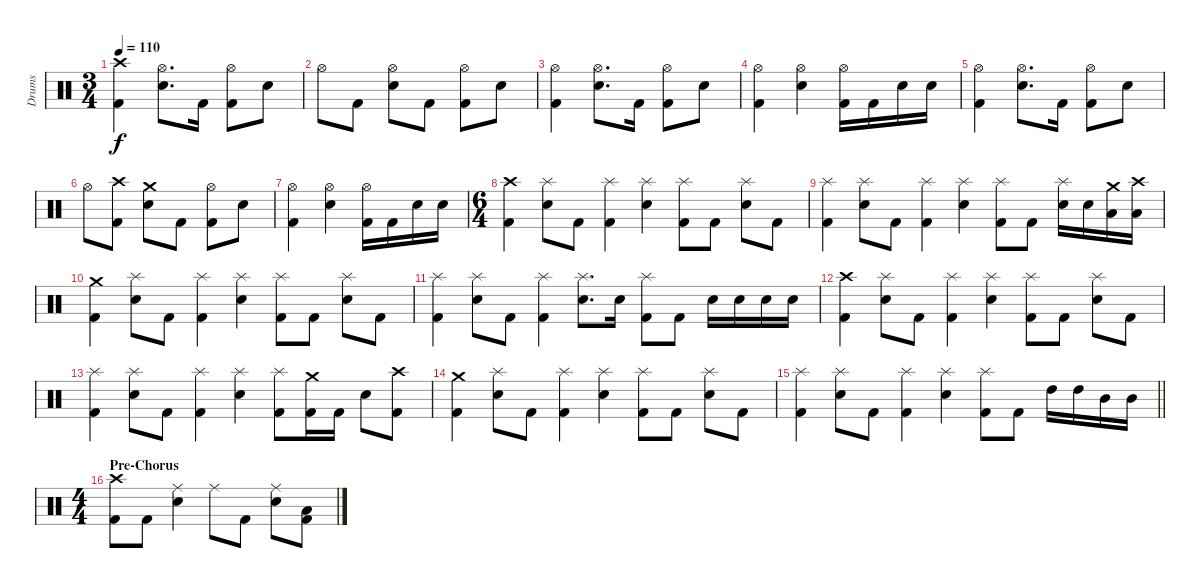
\track ("Drums" "Drums") {instrument percussion}
\staff {score}
\articulation defaults
\ts (3 4)
\tempo 110
\clef neutral
\ks c
("Crash high (hit)" "Kick (hit) 2").4{dy f} ("Hi-Hat (open)" "Snare (hit) 2").8{d} "Kick (hit) 2".16 ("Hi-Hat (open)" "Kick (hit) 2").8 "Snare (hit) 2".8 |
"Hi-Hat (open)".8 "Kick (hit) 2".8 ("Hi-Hat (open)" "Snare (hit) 2").8 "Kick (hit) 2".8 ("Hi-Hat (open)" "Kick (hit) 2").8 "Snare (hit) 2".8 |
("Hi-Hat (open)" "Kick (hit) 2").4 ("Hi-Hat (open)" "Snare (hit) 2").8{d} "Kick (hit) 2".16 ("Hi-Hat (open)" "Kick (hit) 2").8 "Snare (hit) 2".8 |
("Hi-Hat (open)" "Kick (hit) 2").4 ("Hi-Hat (open)" "Snare (hit) 2").4 ("Hi-Hat (open)" "Kick (hit) 2").16 "Kick (hit) 2".16 "Snare (hit) 2".16 "Snare (hit) 2".16 |
("Hi-Hat (open)" "Kick (hit) 2").4 ("Hi-Hat (open)" "Snare (hit) 2").8{d} "Kick (hit) 2".16 ("Hi-Hat (open)" "Kick (hit) 2").8 "Snare (hit) 2".8 |
"Hi-Hat (open)".8 ("Crash high (hit)" "Kick (hit) 2").8 ("Crash medium (hit)" "Snare (hit) 2").8 "Kick (hit) 2".8 ("Hi-Hat (open)" "Kick (hit) 2").8 "Snare (hit) 2".8 |
("Hi-Hat (open)" "Kick (hit) 2").4 ("Hi-Hat (open)" "Snare (hit) 2").4 ("Hi-Hat (open)" "Kick (hit) 2").16 "Kick (hit) 2".16 "Snare (hit) 2".16 "Snare (hit) 2".16 |
\ts (6 4)
("Crash high (hit)" "Kick (hit) 2").4 ("Splash (hit)" "Snare (hit) 2").8 "Kick (hit) 2".8 ("Splash (hit)" "Kick (hit) 2").4 ("Splash (hit)" "Snare (hit) 2").4 ("Splash (hit)" "Kick (hit) 2").8 "Kick (hit) 2".8 ("Splash (hit)" "Snare (hit) 2").8 "Kick (hit) 2".8 |
("Splash (hit)" "Kick (hit) 2").4 ("Splash (hit)" "Snare (hit) 2").8 "Kick (hit) 2".8 ("Splash (hit)" "Kick (hit) 2").4 ("Splash (hit)" "Snare (hit) 2").4 ("Splash (hit)" "Kick (hit) 2").8 "Kick (hit) 2".8 ("Splash (hit)" "Snare (hit) 2").16 "Snare (hit) 2".16 ("Crash medium (hit)" "Low Tom (hit)").16 ("Crash high (hit)" "Low Tom (hit)").16 |
("Crash medium (hit)" "Kick (hit) 2").4 ("Splash (hit)" "Snare (hit) 2").8 "Kick (hit) 2".8 ("Splash (hit)" "Kick (hit) 2").4 ("Splash (hit)" "Snare (hit) 2").4 ("Splash (hit)" "Kick (hit) 2").8 "Kick (hit) 2".8 ("Splash (hit)" "Snare (hit) 2").8 "Kick (hit) 2".8 |
("Splash (hit)" "Kick (hit) 2").4 ("Splash (hit)" "Snare (hit) 2").8 "Kick (hit) 2".8 ("Splash (hit)" "Kick (hit) 2").4 ("Splash (hit)" "Snare (hit) 2").8{d} "Snare (hit) 2".16 ("Splash (hit)" "Kick (hit) 2").8 "Kick (hit) 2".8 "Snare (hit) 2".16 "Snare (hit) 2".16 "Snare (hit) 2".16 "Snare (hit) 2".16 |
("Crash high (hit)" "Kick (hit) 2").4 ("Splash (hit)" "Snare (hit) 2").8 "Kick (hit) 2".8 ("Splash (hit)" "Kick (hit) 2").4 ("Splash (hit)" "Snare (hit) 2").4 ("Splash (hit)" "Kick (hit) 2").8 "Kick (hit) 2".8 ("Splash (hit)" "Snare (hit) 2").8 "Kick (hit) 2".8 |
("Splash (hit)" "Kick (hit) 2").4 ("Splash (hit)" "Snare (hit) 2").8 "Kick (hit) 2".8 ("Splash (hit)" "Kick (hit) 2").4 ("Splash (hit)" "Snare (hit) 2").4 ("Splash (hit)" "Kick (hit) 2").8 ("Crash medium (hit)" "Kick (hit) 2").16 "Kick (hit) 2".16 "Snare (hit) 2".8 ("Crash high (hit)" "Kick (hit) 2").8 |
("Crash medium (hit)" "Kick (hit) 2").4 ("Splash (hit)" "Snare (hit) 2").8 "Kick (hit) 2".8 ("Splash (hit)" "Kick (hit) 2").4 ("Splash (hit)" "Snare (hit) 2").4 ("Splash (hit)" "Kick (hit) 2").8 "Kick (hit) 2".8 ("Splash (hit)" "Snare (hit) 2").8 "Kick (hit) 2".8 |
\barLineRight lightlight
("Splash (hit)" "Kick (hit) 2").4 ("Splash (hit)" "Snare (hit) 2").8 "Kick (hit) 2".8 ("Splash (hit)" "Kick (hit) 2").4 ("Splash (hit)" "Snare (hit) 2").4 ("Splash (hit)" "Kick (hit) 2").8 "Kick (hit) 2".8 "High Tom (hit)".16 "High Tom (hit)".16 "Mid Tom (hit)".16 "Mid Tom (hit)".16 |
\ts (4 4)
\section ("" "Pre-Chorus")
("Crash high (hit)" "Kick (hit) 2").8 "Kick (hit) 2".8 ("Ride (middle)" "Snare (hit) 2").4 "Ride (middle)".8 "Kick (hit) 2".8 ("Ride (middle)" "Snare (hit) 2").8 ("Low Tom (hit)" "Kick (hit) 2").8
